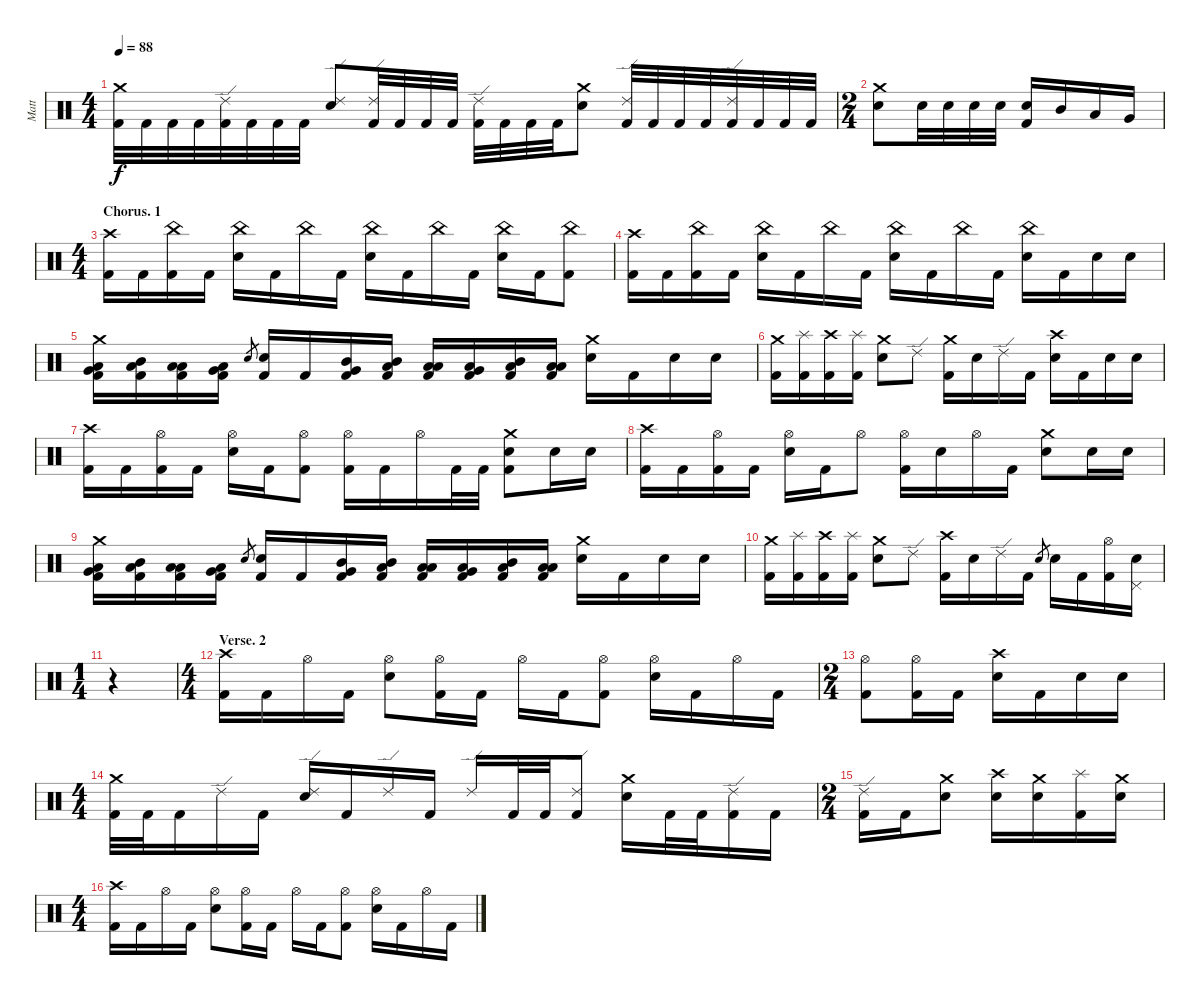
\track ("Matt" "Matt") {instrument percussion}
\staff {score}
\articulation defaults
\ts (4 4)
\tempo 88
\clef neutral
\ks c
("Crash medium (hit)" "Kick (hit) 2").32{dy f} "Kick (hit) 2".32 "Kick (hit) 2".32 "Kick (hit) 2".32 ("Ride (edge) 2" "Kick (hit) 2").32 "Kick (hit) 2".32 "Kick (hit) 2".32 "Kick (hit) 2".32 ("Ride (edge) 2" "Electric Snare (hit)").8 ("Ride (edge) 2" "Kick (hit) 2").32 "Kick (hit) 2".32 "Kick (hit) 2".32 "Kick (hit) 2".32 ("Ride (edge) 2" "Kick (hit) 2").32 "Kick (hit) 2".32 "Kick (hit) 2".32 "Kick (hit) 2".32 ("Crash medium (hit)" "Electric Snare (hit)").8 ("Ride (edge) 2" "Kick (hit) 2").32 "Kick (hit) 2".32 "Kick (hit) 2".32 "Kick (hit) 2".32 ("Ride (edge) 2" "Kick (hit) 2").32 "Kick (hit) 2".32 "Kick (hit) 2".32 "Kick (hit) 2".32 |
\ts (2 4)
("Crash medium (hit)" "Electric Snare (hit)").8 "Electric Snare (hit)".32 "Electric Snare (hit)".32 "Electric Snare (hit)".32 "Electric Snare (hit)".32 ("Electric Snare (hit)" "Kick (hit) 2").16 "Mid Tom (hit)".16 "Low Tom (hit)".16 "Very Low Tom (hit)".16 |
\ts (4 4)
\section ("" "Chorus. 1")
("Crash high (hit)" "Kick (hit) 2").16 "Kick (hit) 2".16 ("China (hit)" "Kick (hit) 2").16 "Kick (hit) 2".16 ("China (hit)" "Electric Snare (hit)").16 "Kick (hit) 2".16 "China (hit)".16 "Kick (hit) 2".16 ("China (hit)" "Electric Snare (hit)").16 "Kick (hit) 2".16 "China (hit)".16 "Kick (hit) 2".16 ("China (hit)" "Electric Snare (hit)").16 "Kick (hit) 2".16 ("China (hit)" "Kick (hit) 2").8 |
("Crash high (hit)" "Kick (hit) 2").16 "Kick (hit) 2".16 ("China (hit)" "Kick (hit) 2").16 "Kick (hit) 2".16 ("China (hit)" "Electric Snare (hit)").16 "Kick (hit) 2".16 "China (hit)".16 "Kick (hit) 2".16 ("China (hit)" "Electric Snare (hit)").16 "Kick (hit) 2".16 "China (hit)".16 "Kick (hit) 2".16 ("China (hit)" "Electric Snare (hit)").16 "Kick (hit) 2".16 "Electric Snare (hit)".16 "Electric Snare (hit)".16 |
("Crash medium (hit)" "Low Tom (hit)" "Very Low Tom (hit)" "Kick (hit) 2").16 ("Low Tom (hit)" "Mid Tom (hit)" "Kick (hit) 2").16 ("Low Tom (hit)" "Low Tom (hit)" "Kick (hit) 2").16 ("Low Tom (hit)" "Very Low Tom (hit)" "Kick (hit) 2").16 "Electric Snare (hit)".8{gr} ("Electric Snare (hit)" "Kick (hit) 2").16 "Kick (hit) 2".16 ("Mid Tom (hit)" "Very Low Tom (hit)" "Kick (hit) 2").16 ("Low Tom (hit)" "Mid Tom (hit)" "Kick (hit) 2").16 ("Low Tom (hit)" "Low Tom (hit)" "Kick (hit) 2").16 ("Low Tom (hit)" "Very Low Tom (hit)" "Kick (hit) 2").16 ("Low Tom (hit)" "Mid Tom (hit)" "Kick (hit) 2").16 ("Low Tom (hit)" "Low Tom (hit)" "Kick (hit) 2").16 ("Crash medium (hit)" "Electric Snare (hit)").16 "Kick (hit) 2".16 "Electric Snare (hit)".16 "Electric Snare (hit)".16 |
("Crash medium (hit)" "Kick (hit) 2").16 ("Splash (hit)" "Kick (hit) 2").16 ("Crash high (hit)" "Kick (hit) 2").16 ("Splash (hit)" "Kick (hit) 2").16 ("Crash medium (hit)" "Electric Snare (hit)").8 "Ride (edge) 2".8 ("Crash medium (hit)" "Kick (hit) 2").16 "Electric Snare (hit)".16 "Ride (edge) 2".16 "Kick (hit) 2".16 ("Crash high (hit)" "Electric Snare (hit)").16 "Kick (hit) 2".16 "Electric Snare (hit)".16 "Electric Snare (hit)".16 |
("Crash high (hit)" "Kick (hit) 2").16 "Kick (hit) 2".16 ("Hi-Hat (open)" "Kick (hit) 2").16 "Kick (hit) 2".16 ("Hi-Hat (open)" "Electric Snare (hit)").16 "Kick (hit) 2".16 ("Hi-Hat (open)" "Kick (hit) 2").8 ("Hi-Hat (open)" "Kick (hit) 2").16 "Kick (hit) 2".16 "Hi-Hat (open)".16 "Kick (hit) 2".32 "Kick (hit) 2".32 ("Crash medium (hit)" "Electric Snare (hit)" "Kick (hit) 2").8 "Electric Snare (hit)".16 "Electric Snare (hit)".16 |
("Crash high (hit)" "Kick (hit) 2").16 "Kick (hit) 2".16 ("Hi-Hat (open)" "Kick (hit) 2").16 "Kick (hit) 2".16 ("Hi-Hat (open)" "Electric Snare (hit)").16 "Kick (hit) 2".16 "Hi-Hat (open)".8 ("Hi-Hat (open)" "Kick (hit) 2").16 "Electric Snare (hit)".16 "Hi-Hat (open)".16 "Kick (hit) 2".16 ("Crash medium (hit)" "Electric Snare (hit)").8 "Electric Snare (hit)".16 "Electric Snare (hit)".16 |
("Crash medium (hit)" "Low Tom (hit)" "Very Low Tom (hit)" "Kick (hit) 2").16 ("Low Tom (hit)" "Mid Tom (hit)" "Kick (hit) 2").16 ("Low Tom (hit)" "Low Tom (hit)" "Kick (hit) 2").16 ("Low Tom (hit)" "Very Low Tom (hit)" "Kick (hit) 2").16 "Electric Snare (hit)".8{gr} ("Electric Snare (hit)" "Kick (hit) 2").16 "Kick (hit) 2".16 ("Mid Tom (hit)" "Very Low Tom (hit)" "Kick (hit) 2").16 ("Low Tom (hit)" "Mid Tom (hit)" "Kick (hit) 2").16 ("Low Tom (hit)" "Low Tom (hit)" "Kick (hit) 2").16 ("Low Tom (hit)" "Very Low Tom (hit)" "Kick (hit) 2").16 ("Low Tom (hit)" "Mid Tom (hit)" "Kick (hit) 2").16 ("Low Tom (hit)" "Low Tom (hit)" "Kick (hit) 2").16 ("Crash medium (hit)" "Electric Snare (hit)").16 "Kick (hit) 2".16 "Electric Snare (hit)".16 "Electric Snare (hit)".16 |
("Crash medium (hit)" "Kick (hit) 2").16 ("Splash (hit)" "Kick (hit) 2").16 ("Crash high (hit)" "Kick (hit) 2").16 ("Splash (hit)" "Kick (hit) 2").16 ("Crash medium (hit)" "Electric Snare (hit)").8 "Ride (edge) 2".8 ("Crash high (hit)" "Kick (hit) 2").16 "Electric Snare (hit)".16 "Ride (edge) 2".16 "Kick (hit) 2".16 "Electric Snare (hit)".8{gr} "Electric Snare (hit)".16 "Kick (hit) 2".16 ("Hi-Hat (open)" "Kick (hit) 2").16 ("Pedal Hi-Hat (hit)" "Electric Snare (hit)").16 |
\ts (1 4)
r.4 |
\ts (4 4)
\section ("" "Verse. 2")
("Crash high (hit)" "Kick (hit) 2").16 "Kick (hit) 2".16 "Hi-Hat (open)".16 "Kick (hit) 2".16 ("Hi-Hat (open)" "Electric Snare (hit)").8 ("Hi-Hat (open)" "Kick (hit) 2").16 "Kick (hit) 2".16 "Hi-Hat (open)".16 "Kick (hit) 2".16 ("Hi-Hat (open)" "Kick (hit) 2").8 ("Hi-Hat (open)" "Electric Snare (hit)").16 "Kick (hit) 2".16 "Hi-Hat (open)".16 "Kick (hit) 2".16 |
\ts (2 4)
("Hi-Hat (open)" "Kick (hit) 2").8 ("Hi-Hat (open)" "Kick (hit) 2").16 "Kick (hit) 2".16 ("Crash high (hit)" "Electric Snare (hit)").16 "Kick (hit) 2".16 "Electric Snare (hit)".16 "Electric Snare (hit)".16 |
\ts (4 4)
("Crash medium (hit)" "Kick (hit) 2").32 "Kick (hit) 2".32 "Kick (hit) 2".16 "Ride (edge) 2".16 "Kick (hit) 2".16 ("Ride (edge) 2" "Electric Snare (hit)").16 "Kick (hit) 2".16 "Ride (edge) 2".16 "Kick (hit) 2".16 "Ride (edge) 2".16 "Kick (hit) 2".32 "Kick (hit) 2".32 ("Ride (edge) 2" "Kick (hit) 2").8 ("Crash medium (hit)" "Electric Snare (hit)").16 "Kick (hit) 2".32 "Kick (hit) 2".32 ("Ride (edge) 2" "Kick (hit) 2").16 "Kick (hit) 2".16 |
\ts (2 4)
("Ride (edge) 2" "Kick (hit) 2").16 "Kick (hit) 2".16 ("Crash medium (hit)" "Electric Snare (hit)").8 ("Crash high (hit)" "Electric Snare (hit)").16 ("Crash medium (hit)" "Electric Snare (hit)").16 ("Splash (hit)" "Kick (hit) 2").16 ("Crash medium (hit)" "Electric Snare (hit)").16 |
\ts (4 4)
("Crash high (hit)" "Kick (hit) 2").16 "Kick (hit) 2".16 "Hi-Hat (open)".16 "Kick (hit) 2".16 ("Hi-Hat (open)" "Electric Snare (hit)").8 ("Hi-Hat (open)" "Kick (hit) 2").16 "Kick (hit) 2".16 "Hi-Hat (open)".16 "Kick (hit) 2".16 ("Hi-Hat (open)" "Kick (hit) 2").8 ("Hi-Hat (open)" "Electric Snare (hit)").16 "Kick (hit) 2".16 "Hi-Hat (open)".16 "Kick (hit) 2".16
